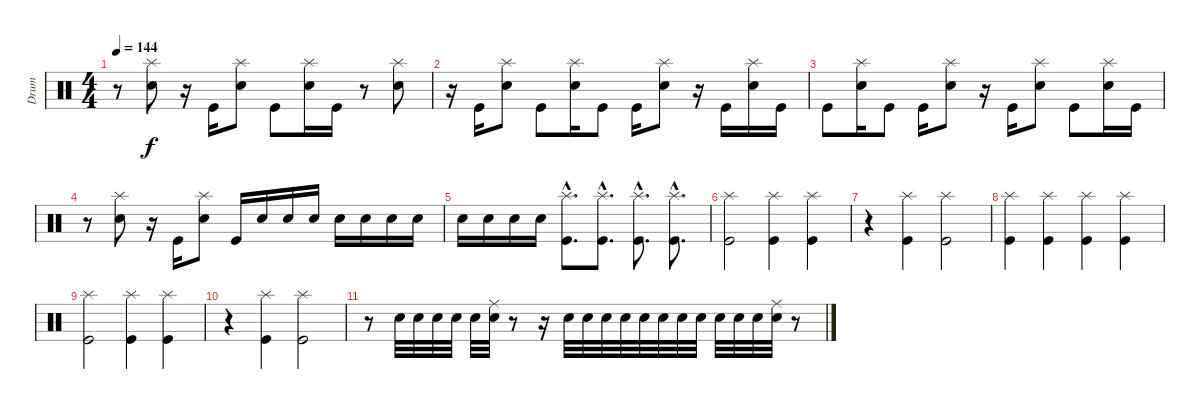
\track ("Drum" "Drum") {instrument percussion}
\staff {score}
\articulation defaults
\ts (4 4)
\tempo 144
\clef neutral
\ks c
r.8{dy f} ("Splash (hit)" "Snare (hit) 2").8 r.16 "Kick (hit)".16 ("Splash (hit)" "Snare (hit) 2").8 "Kick (hit)".8 ("Splash (hit)" "Snare (hit) 2").16 "Kick (hit)".16 r.8 ("Splash (hit)" "Snare (hit) 2").8 |
r.16 "Kick (hit)".16 ("Splash (hit)" "Snare (hit) 2").8 "Kick (hit)".8 ("Splash (hit)" "Snare (hit) 2").16 "Kick (hit)".8 "Kick (hit)".16 ("Splash (hit)" "Snare (hit) 2").8 r.16 "Kick (hit)".16 ("Splash (hit)" "Snare (hit) 2").16 "Kick (hit)".16 |
"Kick (hit)".8 ("Splash (hit)" "Snare (hit) 2").16 "Kick (hit)".8 "Kick (hit)".16 ("Splash (hit)" "Snare (hit) 2").8 r.16 "Kick (hit)".16 ("Splash (hit)" "Snare (hit) 2").8 "Kick (hit)".8 ("Splash (hit)" "Snare (hit) 2").16 "Kick (hit)".16 |
r.8 ("Splash (hit)" "Snare (hit) 2").8 r.16 "Kick (hit)".16 ("Splash (hit)" "Snare (hit) 2").8 "Kick (hit)".16 "Snare (hit) 2".16 "Snare (hit) 2".16 "Snare (hit) 2".16 "Snare (hit) 2".16 "Snare (hit) 2".16 "Snare (hit) 2".16 "Snare (hit) 2".16 |
"Snare (hit) 2".16 "Snare (hit) 2".16 "Snare (hit) 2".16 "Snare (hit) 2".16 ("Splash (hit)"{hac} "Kick (hit)"{hac}).8{d} ("Splash (hit)"{hac} "Kick (hit)"{hac}).8{d} ("Splash (hit)"{hac} "Kick (hit)"{hac}).8{d} ("Splash (hit)"{hac} "Kick (hit)"{hac}).8{d} |
("Splash (hit)" "Kick (hit)").2 ("Splash (hit)" "Kick (hit)").4 ("Splash (hit)" "Kick (hit)").4 |
r.4 ("Splash (hit)" "Kick (hit)").4 ("Splash (hit)" "Kick (hit)").2 |
("Splash (hit)" "Kick (hit)").4 ("Splash (hit)" "Kick (hit)").4 ("Splash (hit)" "Kick (hit)").4 ("Splash (hit)" "Kick (hit)").4 |
("Splash (hit)" "Kick (hit)").2 ("Splash (hit)" "Kick (hit)").4 ("Splash (hit)" "Kick (hit)").4 |
r.4 ("Splash (hit)" "Kick (hit)").4 ("Splash (hit)" "Kick (hit)").2 |
r.8 "Snare (hit) 2".32 "Snare (hit) 2".32 "Snare (hit) 2".32 "Snare (hit) 2".32 "Snare (hit) 2".32 ("Ride (middle)" "Snare (hit) 2").32 r.8 r.16 "Snare (hit) 2".32 "Snare (hit) 2".32 "Snare (hit) 2".32 "Snare (hit) 2".32 "Snare (hit) 2".32 "Snare (hit) 2".32 "Snare (hit) 2".32 "Snare (hit) 2".32 "Snare (hit) 2".32 "Snare (hit) 2".32 "Snare (hit) 2".32 ("Ride (middle)" "Snare (hit) 2").32 r.8
